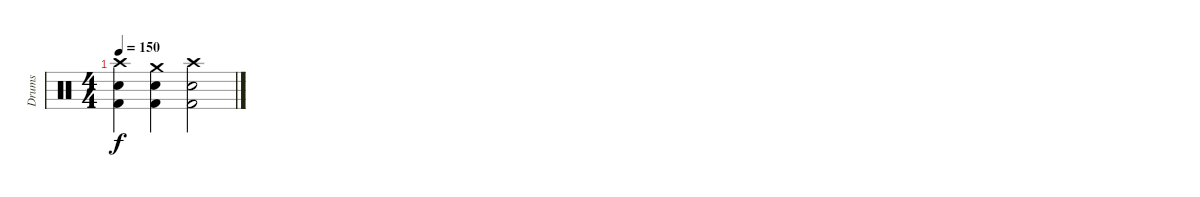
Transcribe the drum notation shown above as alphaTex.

\track ("Drums" "Drums") {instrument percussion}
\staff {score}
\articulation defaults
\ts (4 4)
\tempo 150
\clef neutral
\ks c
("Crash high (hit)" "Kick (hit) 2" "Electric Snare (hit)").4{dy f} ("Crash medium (hit)" "Kick (hit) 2" "Electric Snare (hit)").4 ("Crash high (hit)" "Kick (hit) 2" "Electric Snare (hit)").2
